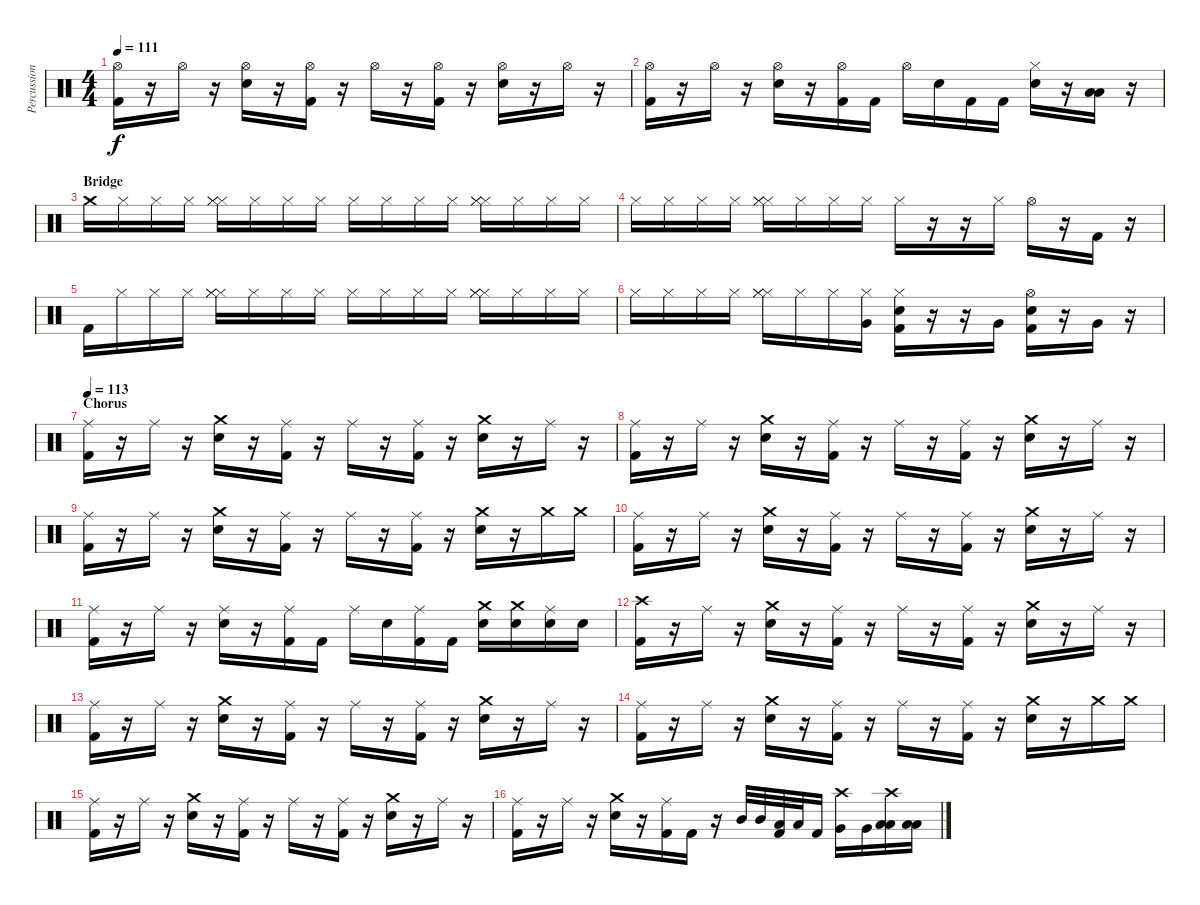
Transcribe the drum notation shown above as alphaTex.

\track ("Percussion" "Percussion") {instrument percussion}
\staff {score}
\articulation defaults
\ts (4 4)
\tempo 111
\clef neutral
\ks c
("Hi-Hat (open)" "Kick (hit) 2").16{dy f} r.16 "Hi-Hat (open)".16 r.16 ("Hi-Hat (open)" "Snare (hit) 2").16 r.16 ("Hi-Hat (open)" "Kick (hit) 2").16 r.16 "Hi-Hat (open)".16 r.16 ("Hi-Hat (open)" "Kick (hit) 2").16 r.16 ("Hi-Hat (open)" "Snare (hit) 2").16 r.16 "Hi-Hat (open)".16 r.16 |
("Hi-Hat (open)" "Kick (hit) 2").16 r.16 "Hi-Hat (open)".16 r.16 ("Hi-Hat (open)" "Snare (hit) 2").16 r.16 ("Hi-Hat (open)" "Kick (hit) 2").16 "Kick (hit) 2".16 "Hi-Hat (open)".16 "Snare (hit) 2".16 "Kick (hit) 2".16 "Kick (hit) 2".16 ("Hi-Hat (closed)" "Snare (hit) 2").16 r.16 ("Low Tom (hit)" "Low Tom (hit)").16 r.16 |
\section ("" "Bridge")
"Crash medium (hit)".16 "Hi-Hat (closed)".16 "Hi-Hat (closed)".16 "Hi-Hat (closed)".16 ("Hi-Hat (closed)" "Hi-Hat (closed)" "Hi-Hat (closed)").16 "Hi-Hat (closed)".16 "Hi-Hat (closed)".16 "Hi-Hat (closed)".16 "Hi-Hat (closed)".16 "Hi-Hat (closed)".16 "Hi-Hat (closed)".16 "Hi-Hat (closed)".16 ("Hi-Hat (closed)" "Hi-Hat (closed)" "Hi-Hat (closed)").16 "Hi-Hat (closed)".16 "Hi-Hat (closed)".16 "Hi-Hat (closed)".16 |
"Hi-Hat (closed)".16 "Hi-Hat (closed)".16 "Hi-Hat (closed)".16 "Hi-Hat (closed)".16 ("Hi-Hat (closed)" "Hi-Hat (closed)" "Hi-Hat (closed)").16 "Hi-Hat (closed)".16 "Hi-Hat (closed)".16 "Hi-Hat (closed)".16 "Hi-Hat (closed)".16 r.16 r.16 "Hi-Hat (closed)".16 "Hi-Hat (open)".16 r.16 "Kick (hit) 2".16 r.16 |
"Kick (hit) 2".16 "Hi-Hat (closed)".16 "Hi-Hat (closed)".16 "Hi-Hat (closed)".16 ("Hi-Hat (closed)" "Hi-Hat (closed)" "Hi-Hat (closed)").16 "Hi-Hat (closed)".16 "Hi-Hat (closed)".16 "Hi-Hat (closed)".16 "Hi-Hat (closed)".16 "Hi-Hat (closed)".16 "Hi-Hat (closed)".16 "Hi-Hat (closed)".16 ("Hi-Hat (closed)" "Hi-Hat (closed)" "Hi-Hat (closed)").16 "Hi-Hat (closed)".16 "Hi-Hat (closed)".16 "Hi-Hat (closed)".16 |
"Hi-Hat (closed)".16 "Hi-Hat (closed)".16 "Hi-Hat (closed)".16 "Hi-Hat (closed)".16 ("Hi-Hat (closed)" "Hi-Hat (closed)" "Hi-Hat (closed)").16 "Hi-Hat (closed)".16 "Hi-Hat (closed)".16 ("Hi-Hat (closed)" "Very Low Tom (hit)").16 ("Hi-Hat (closed)" "Snare (hit) 2" "Kick (hit) 2").16 r.16 r.16 "Very Low Tom (hit)".16 ("Hi-Hat (open)" "Snare (hit) 2" "Kick (hit) 2").16 r.16 "Very Low Tom (hit)".16 r.16 |
\section ("" "Chorus")
\tempo 113
("Ride (middle)" "Kick (hit) 2").16 r.16 "Ride (middle)".16 r.16 ("Crash medium (hit)" "Snare (hit) 2").16 r.16 ("Ride (middle)" "Kick (hit) 2").16 r.16 "Ride (middle)".16 r.16 ("Ride (middle)" "Kick (hit) 2").16 r.16 ("Crash medium (hit)" "Snare (hit) 2").16 r.16 "Ride (middle)".16 r.16 |
("Ride (middle)" "Kick (hit) 2").16 r.16 "Ride (middle)".16 r.16 ("Crash medium (hit)" "Snare (hit) 2").16 r.16 ("Ride (middle)" "Kick (hit) 2").16 r.16 "Ride (middle)".16 r.16 ("Ride (middle)" "Kick (hit) 2").16 r.16 ("Crash medium (hit)" "Snare (hit) 2").16 r.16 "Ride (middle)".16 r.16 |
("Ride (middle)" "Kick (hit) 2").16 r.16 "Ride (middle)".16 r.16 ("Crash medium (hit)" "Snare (hit) 2").16 r.16 ("Ride (middle)" "Kick (hit) 2").16 r.16 "Ride (middle)".16 r.16 ("Ride (middle)" "Kick (hit) 2").16 r.16 ("Crash medium (hit)" "Snare (hit) 2").16 r.16 "Crash medium (hit)".16 "Crash medium (hit)".16 |
("Ride (middle)" "Kick (hit) 2").16 r.16 "Ride (middle)".16 r.16 ("Crash medium (hit)" "Snare (hit) 2").16 r.16 ("Ride (middle)" "Kick (hit) 2").16 r.16 "Ride (middle)".16 r.16 ("Ride (middle)" "Kick (hit) 2").16 r.16 ("Crash medium (hit)" "Snare (hit) 2").16 r.16 "Ride (middle)".16 r.16 |
("Ride (middle)" "Kick (hit) 2").16 r.16 "Ride (middle)".16 r.16 ("Ride (middle)" "Snare (hit) 2").16 r.16 ("Ride (middle)" "Kick (hit) 2").16 "Kick (hit) 2".16 "Ride (middle)".16 "Snare (hit) 2".16 ("Ride (middle)" "Kick (hit) 2").16 "Kick (hit) 2".16 ("Crash medium (hit)" "Snare (hit) 2").16 ("Crash medium (hit)" "Snare (hit) 2").16 ("Ride (middle)" "Snare (hit) 2").16 "Snare (hit) 2".16 |
("Crash high (hit)" "Kick (hit) 2").16 r.16 "Ride (middle)".16 r.16 ("Crash medium (hit)" "Snare (hit) 2").16 r.16 ("Ride (middle)" "Kick (hit) 2").16 r.16 "Ride (middle)".16 r.16 ("Ride (middle)" "Kick (hit) 2").16 r.16 ("Crash medium (hit)" "Snare (hit) 2").16 r.16 "Ride (middle)".16 r.16 |
("Ride (middle)" "Kick (hit) 2").16 r.16 "Ride (middle)".16 r.16 ("Crash medium (hit)" "Snare (hit) 2").16 r.16 ("Ride (middle)" "Kick (hit) 2").16 r.16 "Ride (middle)".16 r.16 ("Ride (middle)" "Kick (hit) 2").16 r.16 ("Crash medium (hit)" "Snare (hit) 2").16 r.16 "Ride (middle)".16 r.16 |
("Ride (middle)" "Kick (hit) 2").16 r.16 "Ride (middle)".16 r.16 ("Crash medium (hit)" "Snare (hit) 2").16 r.16 ("Ride (middle)" "Kick (hit) 2").16 r.16 "Ride (middle)".16 r.16 ("Ride (middle)" "Kick (hit) 2").16 r.16 ("Crash medium (hit)" "Snare (hit) 2").16 r.16 "Crash medium (hit)".16 "Crash medium (hit)".16 |
("Ride (middle)" "Kick (hit) 2").16 r.16 "Ride (middle)".16 r.16 ("Crash medium (hit)" "Snare (hit) 2").16 r.16 ("Ride (middle)" "Kick (hit) 2").16 r.16 "Ride (middle)".16 r.16 ("Ride (middle)" "Kick (hit) 2").16 r.16 ("Crash medium (hit)" "Snare (hit) 2").16 r.16 "Ride (middle)".16 r.16 |
("Ride (middle)" "Kick (hit) 2").16 r.16 "Ride (middle)".16 r.16 ("Crash medium (hit)" "Snare (hit) 2").16 r.16 ("Ride (middle)" "Kick (hit) 2").16 "Kick (hit) 2".16 r.16 "Mid Tom (hit)".32 "Mid Tom (hit)".32 ("Low Tom (hit)" "Kick (hit) 2").32 "Low Tom (hit)".32 "Kick (hit) 2".16 ("Crash high (hit)" "Very Low Tom (hit)").16 "Very Low Tom (hit)".16 ("Crash high (hit)" "Low Floor Tom (hit)" "Low Floor Tom (hit)").16 ("Low Floor Tom (hit)" "Low Floor Tom (hit)").16
